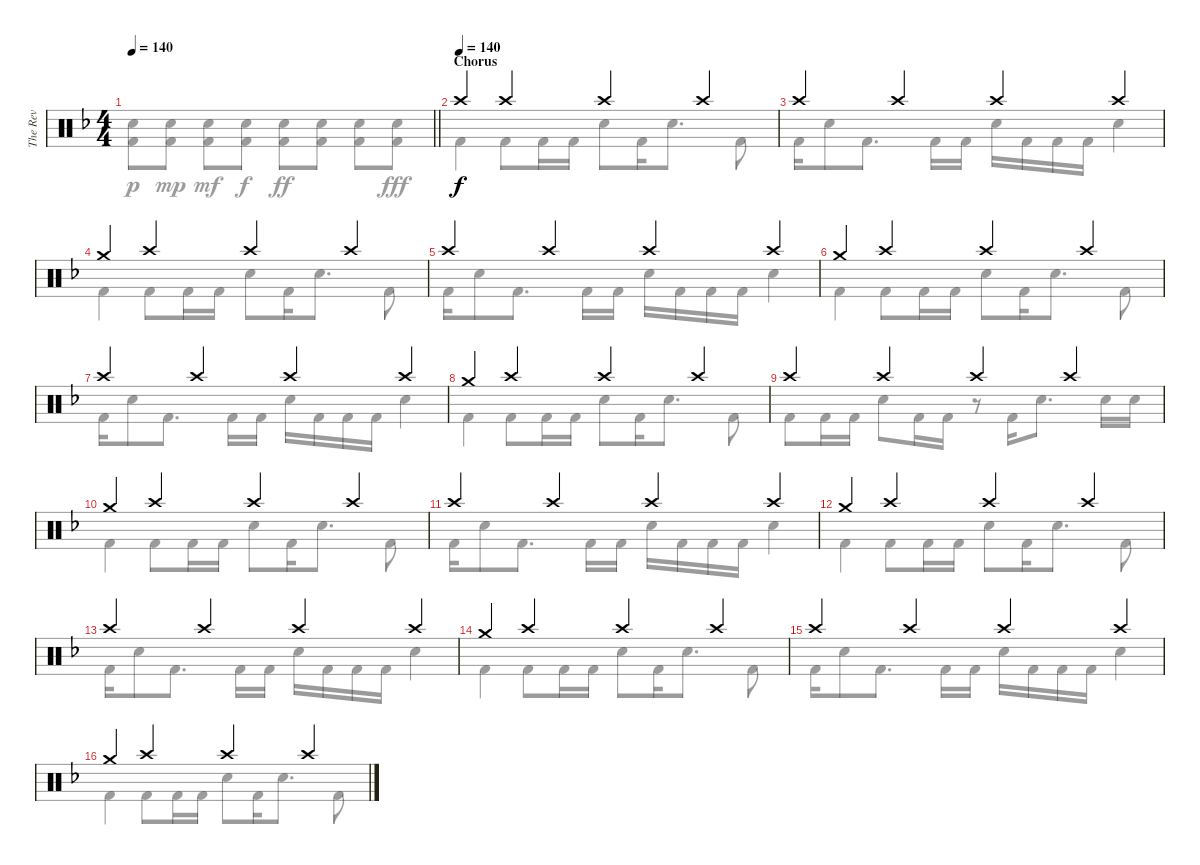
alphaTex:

\track ("The Rev" "The Rev") {instrument percussion}
\staff {score}
\articulation defaults
\voice
\ts (4 4)
\tempo 140
\clef neutral
\barLineRight lightlight
\ks dminor
|
\section ("" "Chorus")
\tempo (140)
"Crash high (hit)".4 "Crash high (hit)".4 "Crash high (hit)".4 "Crash high (hit)".4 |
"Crash high (hit)".4 "Crash high (hit)".4 "Crash high (hit)".4 "Crash high (hit)".4 |
"Crash medium (hit)".4 "Crash high (hit)".4 "Crash high (hit)".4 "Crash high (hit)".4 |
"Crash high (hit)".4 "Crash high (hit)".4 "Crash high (hit)".4 "Crash high (hit)".4 |
"Crash medium (hit)".4 "Crash high (hit)".4 "Crash high (hit)".4 "Crash high (hit)".4 |
"Crash high (hit)".4 "Crash high (hit)".4 "Crash high (hit)".4 "Crash high (hit)".4 |
"Crash medium (hit)".4 "Crash high (hit)".4 "Crash high (hit)".4 "Crash high (hit)".4 |
"Crash high (hit)".4 "Crash high (hit)".4 "Crash high (hit)".4 "Crash high (hit)".4 |
"Crash medium (hit)".4 "Crash high (hit)".4 "Crash high (hit)".4 "Crash high (hit)".4 |
"Crash high (hit)".4 "Crash high (hit)".4 "Crash high (hit)".4 "Crash high (hit)".4 |
"Crash medium (hit)".4 "Crash high (hit)".4 "Crash high (hit)".4 "Crash high (hit)".4 |
"Crash high (hit)".4 "Crash high (hit)".4 "Crash high (hit)".4 "Crash high (hit)".4 |
"Crash medium (hit)".4 "Crash high (hit)".4 "Crash high (hit)".4 "Crash high (hit)".4 |
"Crash high (hit)".4 "Crash high (hit)".4 "Crash high (hit)".4 "Crash high (hit)".4 |
"Crash medium (hit)".4 "Crash high (hit)".4 "Crash high (hit)".4 "Crash high (hit)".4
\voice
\clef neutral
\ottava regular
\simile none
\barLineRight lightlight
\ks dminor
("Electric Snare (hit)" "Kick (hit) 2").8{dy p} ("Electric Snare (hit)" "Kick (hit) 2").8{dy mp} ("Electric Snare (hit)" "Kick (hit) 2").8{dy mf} ("Electric Snare (hit)" "Kick (hit) 2").8{dy f} ("Electric Snare (hit)" "Kick (hit) 2").8{dy ff} ("Electric Snare (hit)" "Kick (hit) 2").8 ("Electric Snare (hit)" "Kick (hit) 2").8 ("Electric Snare (hit)" "Kick (hit) 2").8{dy fff} |
"Kick (hit) 2".4{dy f} "Kick (hit) 2".8 "Kick (hit) 2".16 "Kick (hit) 2".16 "Electric Snare (hit)".8 "Kick (hit) 2".16 "Electric Snare (hit)".8{d} "Kick (hit) 2".8 |
"Kick (hit) 2".16 "Electric Snare (hit)".8 "Kick (hit) 2".8{d} "Kick (hit) 2".16 "Kick (hit) 2".16 "Electric Snare (hit)".16 "Kick (hit) 2".16 "Kick (hit) 2".16 "Kick (hit) 2".16 "Electric Snare (hit)".4 |
"Kick (hit) 2".4 "Kick (hit) 2".8 "Kick (hit) 2".16 "Kick (hit) 2".16 "Electric Snare (hit)".8 "Kick (hit) 2".16 "Electric Snare (hit)".8{d} "Kick (hit) 2".8 |
"Kick (hit) 2".16 "Electric Snare (hit)".8 "Kick (hit) 2".8{d} "Kick (hit) 2".16 "Kick (hit) 2".16 "Electric Snare (hit)".16 "Kick (hit) 2".16 "Kick (hit) 2".16 "Kick (hit) 2".16 "Electric Snare (hit)".4 |
"Kick (hit) 2".4 "Kick (hit) 2".8 "Kick (hit) 2".16 "Kick (hit) 2".16 "Electric Snare (hit)".8 "Kick (hit) 2".16 "Electric Snare (hit)".8{d} "Kick (hit) 2".8 |
"Kick (hit) 2".16 "Electric Snare (hit)".8 "Kick (hit) 2".8{d} "Kick (hit) 2".16 "Kick (hit) 2".16 "Electric Snare (hit)".16 "Kick (hit) 2".16 "Kick (hit) 2".16 "Kick (hit) 2".16 "Electric Snare (hit)".4 |
"Kick (hit) 2".4 "Kick (hit) 2".8 "Kick (hit) 2".16 "Kick (hit) 2".16 "Electric Snare (hit)".8 "Kick (hit) 2".16 "Electric Snare (hit)".8{d} "Kick (hit) 2".8 |
"Kick (hit) 2".8 "Kick (hit) 2".16 "Kick (hit) 2".16 "Electric Snare (hit)".8 "Kick (hit) 2".16 "Kick (hit) 2".16 r.8 "Kick (hit) 2".16 "Electric Snare (hit)".8{d} "Electric Snare (hit)".16 "Electric Snare (hit)".16 |
"Kick (hit) 2".4 "Kick (hit) 2".8 "Kick (hit) 2".16 "Kick (hit) 2".16 "Electric Snare (hit)".8 "Kick (hit) 2".16 "Electric Snare (hit)".8{d} "Kick (hit) 2".8 |
"Kick (hit) 2".16 "Electric Snare (hit)".8 "Kick (hit) 2".8{d} "Kick (hit) 2".16 "Kick (hit) 2".16 "Electric Snare (hit)".16 "Kick (hit) 2".16 "Kick (hit) 2".16 "Kick (hit) 2".16 "Electric Snare (hit)".4 |
"Kick (hit) 2".4 "Kick (hit) 2".8 "Kick (hit) 2".16 "Kick (hit) 2".16 "Electric Snare (hit)".8 "Kick (hit) 2".16 "Electric Snare (hit)".8{d} "Kick (hit) 2".8 |
"Kick (hit) 2".16 "Electric Snare (hit)".8 "Kick (hit) 2".8{d} "Kick (hit) 2".16 "Kick (hit) 2".16 "Electric Snare (hit)".16 "Kick (hit) 2".16 "Kick (hit) 2".16 "Kick (hit) 2".16 "Electric Snare (hit)".4 |
"Kick (hit) 2".4 "Kick (hit) 2".8 "Kick (hit) 2".16 "Kick (hit) 2".16 "Electric Snare (hit)".8 "Kick (hit) 2".16 "Electric Snare (hit)".8{d} "Kick (hit) 2".8 |
"Kick (hit) 2".16 "Electric Snare (hit)".8 "Kick (hit) 2".8{d} "Kick (hit) 2".16 "Kick (hit) 2".16 "Electric Snare (hit)".16 "Kick (hit) 2".16 "Kick (hit) 2".16 "Kick (hit) 2".16 "Electric Snare (hit)".4 |
"Kick (hit) 2".4 "Kick (hit) 2".8 "Kick (hit) 2".16 "Kick (hit) 2".16 "Electric Snare (hit)".8 "Kick (hit) 2".16 "Electric Snare (hit)".8{d} "Kick (hit) 2".8
